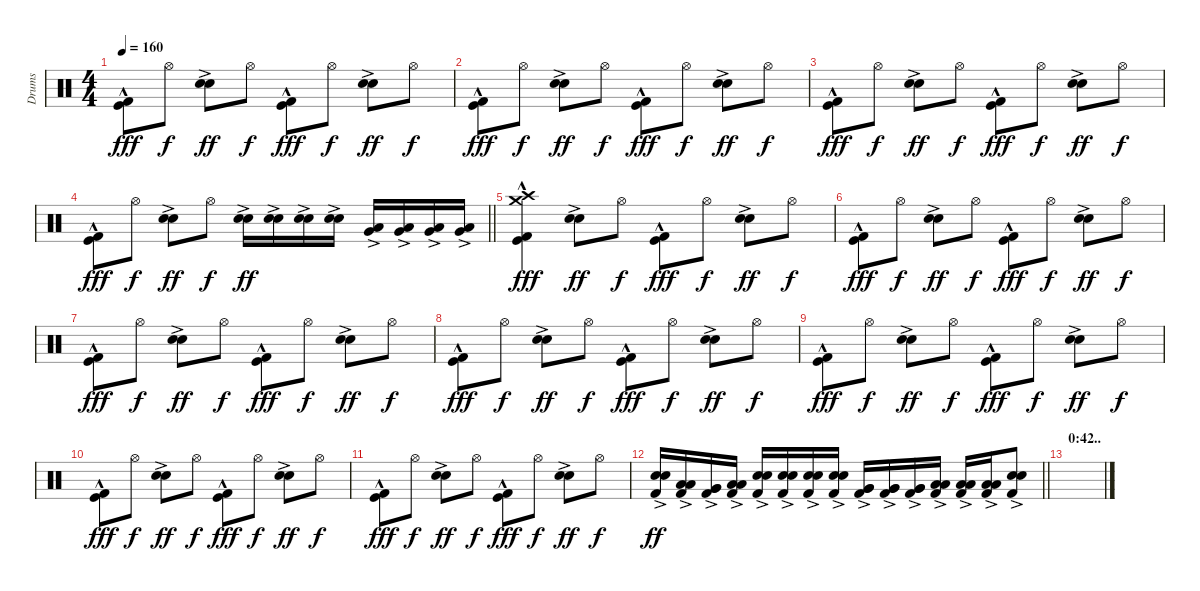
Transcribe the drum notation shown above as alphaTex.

\track ("Drums" "Drums") {instrument percussion}
\staff {score}
\articulation defaults
\ts (4 4)
\tempo 160
\clef neutral
\ks c
("Kick (hit) 2"{hac} "Kick (hit)"{hac}).8{dy fff} "Hi-Hat (open)".8{dy f} ("Snare (hit) 2"{ac} "Electric Snare (hit)"{ac}).8{dy ff} "Hi-Hat (open)".8{dy f} ("Kick (hit) 2"{hac} "Kick (hit)"{hac}).8{dy fff} "Hi-Hat (open)".8{dy f} ("Snare (hit) 2"{ac} "Electric Snare (hit)"{ac}).8{dy ff} "Hi-Hat (open)".8{dy f} |
("Kick (hit) 2"{hac} "Kick (hit)"{hac}).8{dy fff} "Hi-Hat (open)".8{dy f} ("Snare (hit) 2"{ac} "Electric Snare (hit)"{ac}).8{dy ff} "Hi-Hat (open)".8{dy f} ("Kick (hit) 2"{hac} "Kick (hit)"{hac}).8{dy fff} "Hi-Hat (open)".8{dy f} ("Snare (hit) 2"{ac} "Electric Snare (hit)"{ac}).8{dy ff} "Hi-Hat (open)".8{dy f} |
("Kick (hit) 2"{hac} "Kick (hit)"{hac}).8{dy fff} "Hi-Hat (open)".8{dy f} ("Snare (hit) 2"{ac} "Electric Snare (hit)"{ac}).8{dy ff} "Hi-Hat (open)".8{dy f} ("Kick (hit) 2"{hac} "Kick (hit)"{hac}).8{dy fff} "Hi-Hat (open)".8{dy f} ("Snare (hit) 2"{ac} "Electric Snare (hit)"{ac}).8{dy ff} "Hi-Hat (open)".8{dy f} |
\barLineRight lightlight
("Kick (hit) 2"{hac} "Kick (hit)"{hac}).8{dy fff} "Hi-Hat (open)".8{dy f} ("Snare (hit) 2"{ac} "Electric Snare (hit)"{ac}).8{dy ff} "Hi-Hat (open)".8{dy f} ("Snare (hit) 2"{ac} "Electric Snare (hit)"{ac}).16{dy ff} ("Snare (hit) 2"{ac} "Electric Snare (hit)"{ac}).16 ("Snare (hit) 2"{ac} "Electric Snare (hit)"{ac}).16 ("Snare (hit) 2"{ac} "Electric Snare (hit)"{ac}).16 ("Very Low Tom (hit)" "Low Tom (hit)"{ac}).16 ("Very Low Tom (hit)" "Low Tom (hit)"{ac}).16 ("Low Floor Tom (hit)" "Very Low Tom (hit)"{ac}).16 ("Low Floor Tom (hit)" "Very Low Tom (hit)"{ac}).16 |
\section ("" "")
("Kick (hit) 2"{hac} "Kick (hit)"{hac} "Crash medium (hit)" "Crash high (hit)").4{dy fff} ("Snare (hit) 2"{ac} "Electric Snare (hit)"{ac}).8{dy ff} "Hi-Hat (open)".8{dy f} ("Kick (hit) 2"{hac} "Kick (hit)"{hac}).8{dy fff} "Hi-Hat (open)".8{dy f} ("Snare (hit) 2"{ac} "Electric Snare (hit)"{ac}).8{dy ff} "Hi-Hat (open)".8{dy f} |
("Kick (hit) 2"{hac} "Kick (hit)"{hac}).8{dy fff} "Hi-Hat (open)".8{dy f} ("Snare (hit) 2"{ac} "Electric Snare (hit)"{ac}).8{dy ff} "Hi-Hat (open)".8{dy f} ("Kick (hit) 2"{hac} "Kick (hit)"{hac}).8{dy fff} "Hi-Hat (open)".8{dy f} ("Snare (hit) 2"{ac} "Electric Snare (hit)"{ac}).8{dy ff} "Hi-Hat (open)".8{dy f} |
("Kick (hit) 2"{hac} "Kick (hit)"{hac}).8{dy fff} "Hi-Hat (open)".8{dy f} ("Snare (hit) 2"{ac} "Electric Snare (hit)"{ac}).8{dy ff} "Hi-Hat (open)".8{dy f} ("Kick (hit) 2"{hac} "Kick (hit)"{hac}).8{dy fff} "Hi-Hat (open)".8{dy f} ("Snare (hit) 2"{ac} "Electric Snare (hit)"{ac}).8{dy ff} "Hi-Hat (open)".8{dy f} |
("Kick (hit) 2"{hac} "Kick (hit)"{hac}).8{dy fff} "Hi-Hat (open)".8{dy f} ("Snare (hit) 2"{ac} "Electric Snare (hit)"{ac}).8{dy ff} "Hi-Hat (open)".8{dy f} ("Kick (hit) 2"{hac} "Kick (hit)"{hac}).8{dy fff} "Hi-Hat (open)".8{dy f} ("Snare (hit) 2"{ac} "Electric Snare (hit)"{ac}).8{dy ff} "Hi-Hat (open)".8{dy f} |
("Kick (hit) 2"{hac} "Kick (hit)"{hac}).8{dy fff} "Hi-Hat (open)".8{dy f} ("Snare (hit) 2"{ac} "Electric Snare (hit)"{ac}).8{dy ff} "Hi-Hat (open)".8{dy f} ("Kick (hit) 2"{hac} "Kick (hit)"{hac}).8{dy fff} "Hi-Hat (open)".8{dy f} ("Snare (hit) 2"{ac} "Electric Snare (hit)"{ac}).8{dy ff} "Hi-Hat (open)".8{dy f} |
("Kick (hit) 2"{hac} "Kick (hit)"{hac}).8{dy fff} "Hi-Hat (open)".8{dy f} ("Snare (hit) 2"{ac} "Electric Snare (hit)"{ac}).8{dy ff} "Hi-Hat (open)".8{dy f} ("Kick (hit) 2"{hac} "Kick (hit)"{hac}).8{dy fff} "Hi-Hat (open)".8{dy f} ("Snare (hit) 2"{ac} "Electric Snare (hit)"{ac}).8{dy ff} "Hi-Hat (open)".8{dy f} |
("Kick (hit) 2"{hac} "Kick (hit)"{hac}).8{dy fff} "Hi-Hat (open)".8{dy f} ("Snare (hit) 2"{ac} "Electric Snare (hit)"{ac}).8{dy ff} "Hi-Hat (open)".8{dy f} ("Kick (hit) 2"{hac} "Kick (hit)"{hac}).8{dy fff} "Hi-Hat (open)".8{dy f} ("Snare (hit) 2"{ac} "Electric Snare (hit)"{ac}).8{dy ff} "Hi-Hat (open)".8{dy f} |
\barLineRight lightlight
("Kick (hit) 2" "Snare (hit) 2"{ac} "Electric Snare (hit)"{ac}).16{dy ff} ("Kick (hit) 2" "Low Tom (hit)"{ac} "Low Tom (hit)"{ac}).16 ("Kick (hit) 2" "Very Low Tom (hit)"{ac} "Very Low Tom (hit)"{ac}).16 ("Kick (hit) 2" "Low Floor Tom (hit)"{ac} "Low Floor Tom (hit)"{ac}).16 ("Kick (hit) 2" "Snare (hit) 2"{ac} "Electric Snare (hit)"{ac}).16 ("Kick (hit) 2" "Snare (hit) 2"{ac} "Electric Snare (hit)"{ac}).16 ("Kick (hit) 2" "Snare (hit) 2"{ac} "Electric Snare (hit)"{ac}).16 ("Kick (hit) 2" "Snare (hit) 2"{ac} "Electric Snare (hit)"{ac}).16 ("Kick (hit) 2" "Very Low Tom (hit)"{ac} "Very Low Tom (hit)"{ac}).16 ("Kick (hit) 2" "Very Low Tom (hit)"{ac} "Very Low Tom (hit)"{ac}).16 ("Kick (hit) 2" "Very Low Tom (hit)"{ac} "Very Low Tom (hit)"{ac}).16 ("Kick (hit) 2" "Low Floor Tom (hit)"{ac} "Low Floor Tom (hit)"{ac}).16 ("Kick (hit) 2" "Low Floor Tom (hit)"{ac} "Low Floor Tom (hit)"{ac}).16 ("Kick (hit) 2" "Low Floor Tom (hit)"{ac} "Low Floor Tom (hit)"{ac}).16 ("Kick (hit) 2" "Snare (hit) 2"{ac} "Electric Snare (hit)"{ac}).8 |
\section ("" "0:42..")
